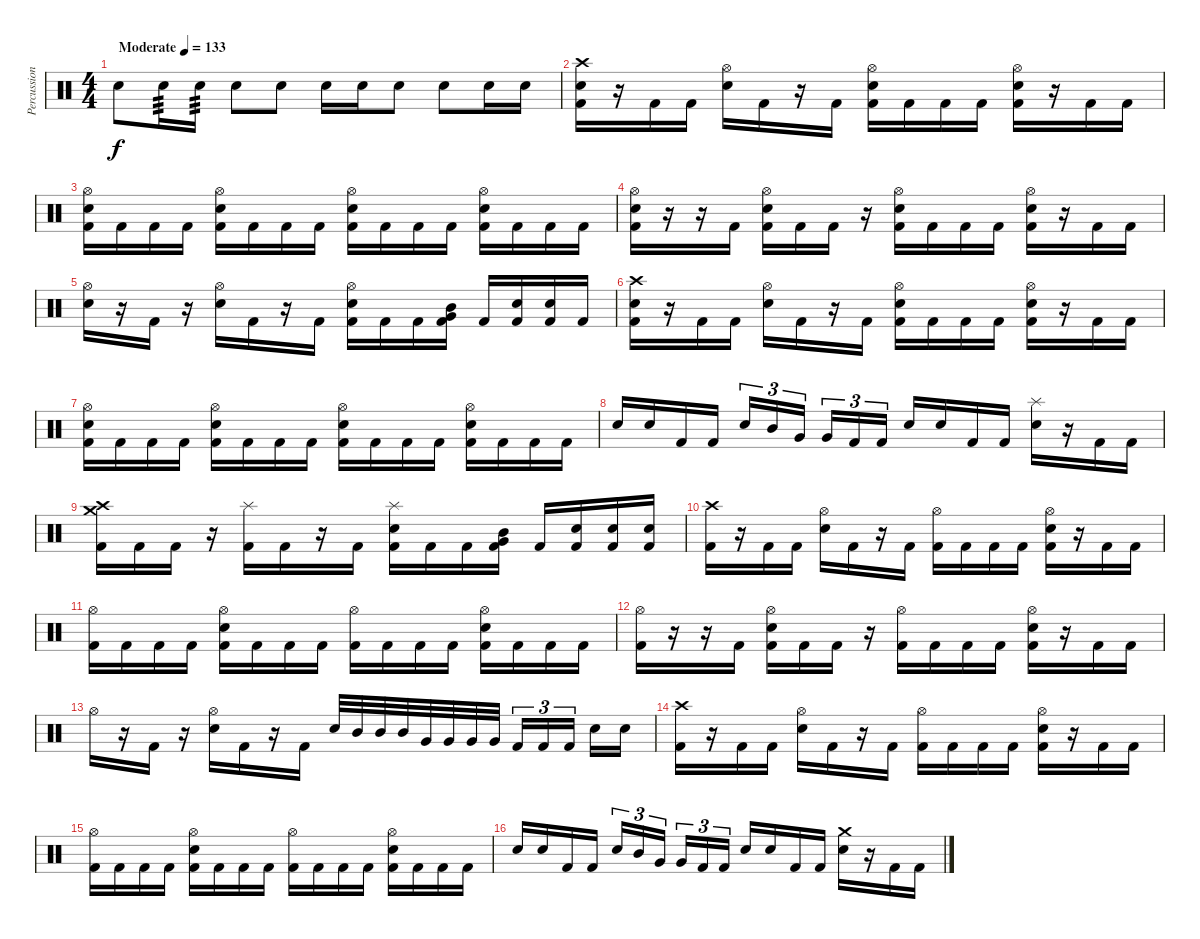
\track ("Percussion" "Percussion") {instrument percussion}
\staff {score}
\articulation defaults
\ts (4 4)
\tempo (133 "Moderate")
\clef neutral
\ks c "Snare (hit) 2".8{dy f} "Snare (hit) 2".16{tp 3} "Snare (hit) 2".16{tp 3} "Snare (hit) 2".8 "Snare (hit) 2".8 "Snare (hit) 2".16 "Snare (hit) 2".16 "Snare (hit) 2".8 "Snare (hit) 2".8 "Snare (hit) 2".16 "Snare (hit) 2".16
|
("Kick (hit) 2" "Electric Snare (hit)" "Crash high (hit)").16 r.16 "Kick (hit) 2".16 "Kick (hit) 2".16 ("Electric Snare (hit)" "Hi-Hat (open)").16 "Kick (hit) 2".16 r.16 "Kick (hit) 2".16 ("Kick (hit) 2" "Electric Snare (hit)" "Hi-Hat (open)").16 "Kick (hit) 2".16 "Kick (hit) 2".16 "Kick (hit) 2".16 ("Kick (hit) 2" "Electric Snare (hit)" "Hi-Hat (open)").16 r.16 "Kick (hit) 2".16 "Kick (hit) 2".16 |
("Kick (hit) 2" "Electric Snare (hit)" "Hi-Hat (open)").16 "Kick (hit) 2".16 "Kick (hit) 2".16 "Kick (hit) 2".16 ("Kick (hit) 2" "Electric Snare (hit)" "Hi-Hat (open)").16 "Kick (hit) 2".16 "Kick (hit) 2".16 "Kick (hit) 2".16 ("Kick (hit) 2" "Electric Snare (hit)" "Hi-Hat (open)").16 "Kick (hit) 2".16 "Kick (hit) 2".16 "Kick (hit) 2".16 ("Kick (hit) 2" "Electric Snare (hit)" "Hi-Hat (open)").16 "Kick (hit) 2".16 "Kick (hit) 2".16 "Kick (hit) 2".16 |
("Kick (hit) 2" "Electric Snare (hit)" "Hi-Hat (open)").16 r.16 r.16 "Kick (hit) 2".16 ("Kick (hit) 2" "Electric Snare (hit)" "Hi-Hat (open)").16 "Kick (hit) 2".16 "Kick (hit) 2".16 r.16 ("Kick (hit) 2" "Electric Snare (hit)" "Hi-Hat (open)").16 "Kick (hit) 2".16 "Kick (hit) 2".16 "Kick (hit) 2".16 ("Kick (hit) 2" "Electric Snare (hit)" "Hi-Hat (open)").16 r.16 "Kick (hit) 2".16 "Kick (hit) 2".16 |
("Electric Snare (hit)" "Hi-Hat (open)").16 r.16 "Kick (hit) 2".16 r.16 ("Electric Snare (hit)" "Hi-Hat (open)").16 "Kick (hit) 2".16 r.16 "Kick (hit) 2".16 ("Kick (hit) 2" "Electric Snare (hit)" "Hi-Hat (open)").16 "Kick (hit) 2".16 "Kick (hit) 2".16 ("Kick (hit) 2" "Very Low Tom (hit)" "Mid Tom (hit)").16 "Kick (hit) 2".16 ("Kick (hit) 2" "Electric Snare (hit)").16 ("Kick (hit) 2" "Electric Snare (hit)").16 "Kick (hit) 2".16 |
("Kick (hit) 2" "Electric Snare (hit)" "Crash high (hit)").16 r.16 "Kick (hit) 2".16 "Kick (hit) 2".16 ("Electric Snare (hit)" "Hi-Hat (open)").16 "Kick (hit) 2".16 r.16 "Kick (hit) 2".16 ("Kick (hit) 2" "Electric Snare (hit)" "Hi-Hat (open)").16 "Kick (hit) 2".16 "Kick (hit) 2".16 "Kick (hit) 2".16 ("Kick (hit) 2" "Electric Snare (hit)" "Hi-Hat (open)").16 r.16 "Kick (hit) 2".16 "Kick (hit) 2".16 |
("Kick (hit) 2" "Electric Snare (hit)" "Hi-Hat (open)").16 "Kick (hit) 2".16 "Kick (hit) 2".16 "Kick (hit) 2".16 ("Kick (hit) 2" "Electric Snare (hit)" "Hi-Hat (open)").16 "Kick (hit) 2".16 "Kick (hit) 2".16 "Kick (hit) 2".16 ("Kick (hit) 2" "Electric Snare (hit)" "Hi-Hat (open)").16 "Kick (hit) 2".16 "Kick (hit) 2".16 "Kick (hit) 2".16 ("Kick (hit) 2" "Electric Snare (hit)" "Hi-Hat (open)").16 "Kick (hit) 2".16 "Kick (hit) 2".16 "Kick (hit) 2".16 |
"Electric Snare (hit)".16 "Electric Snare (hit)".16 "Kick (hit) 2".16 "Kick (hit) 2".16 "Electric Snare (hit)".16{tu (3 2)} "Mid Tom (hit)".16{tu (3 2)} "Very Low Tom (hit)".16{tu (3 2) beam splitsecondary} "Very Low Tom (hit)".16{tu (3 2)} "Kick (hit) 2".16{tu (3 2)} "Kick (hit) 2".16{tu (3 2)} "Electric Snare (hit)".16 "Electric Snare (hit)".16 "Kick (hit) 2".16 "Kick (hit) 2".16 ("Electric Snare (hit)" "Splash (hit)").16 r.16 "Kick (hit) 2".16 "Kick (hit) 2".16 |
("Kick (hit) 2" "Crash medium (hit)" "Crash high (hit)").16 "Kick (hit) 2".16 "Kick (hit) 2".16 r.16 ("Kick (hit) 2" "Splash (hit)").16 "Kick (hit) 2".16 r.16 "Kick (hit) 2".16 ("Kick (hit) 2" "Electric Snare (hit)" "Splash (hit)").16 "Kick (hit) 2".16 "Kick (hit) 2".16 ("Kick (hit) 2" "Very Low Tom (hit)" "Mid Tom (hit)").16 "Kick (hit) 2".16 ("Kick (hit) 2" "Electric Snare (hit)").16 ("Kick (hit) 2" "Electric Snare (hit)").16 ("Kick (hit) 2" "Electric Snare (hit)").16 |
("Kick (hit) 2" "Crash high (hit)").16 r.16 "Kick (hit) 2".16 "Kick (hit) 2".16 ("Electric Snare (hit)" "Hi-Hat (open)").16 "Kick (hit) 2".16 r.16 "Kick (hit) 2".16 ("Kick (hit) 2" "Hi-Hat (open)").16 "Kick (hit) 2".16 "Kick (hit) 2".16 "Kick (hit) 2".16 ("Kick (hit) 2" "Electric Snare (hit)" "Hi-Hat (open)").16 r.16 "Kick (hit) 2".16 "Kick (hit) 2".16 |
("Kick (hit) 2" "Hi-Hat (open)").16 "Kick (hit) 2".16 "Kick (hit) 2".16 "Kick (hit) 2".16 ("Kick (hit) 2" "Electric Snare (hit)" "Hi-Hat (open)").16 "Kick (hit) 2".16 "Kick (hit) 2".16 "Kick (hit) 2".16 ("Kick (hit) 2" "Hi-Hat (open)").16 "Kick (hit) 2".16 "Kick (hit) 2".16 "Kick (hit) 2".16 ("Kick (hit) 2" "Electric Snare (hit)" "Hi-Hat (open)").16 "Kick (hit) 2".16 "Kick (hit) 2".16 "Kick (hit) 2".16 |
("Kick (hit) 2" "Hi-Hat (open)").16 r.16 r.16 "Kick (hit) 2".16 ("Kick (hit) 2" "Electric Snare (hit)" "Hi-Hat (open)").16 "Kick (hit) 2".16 "Kick (hit) 2".16 r.16 ("Kick (hit) 2" "Hi-Hat (open)").16 "Kick (hit) 2".16 "Kick (hit) 2".16 "Kick (hit) 2".16 ("Kick (hit) 2" "Electric Snare (hit)" "Hi-Hat (open)").16 r.16 "Kick (hit) 2".16 "Kick (hit) 2".16 |
"Hi-Hat (open)".16 r.16 "Kick (hit) 2".16 r.16 ("Electric Snare (hit)" "Hi-Hat (open)").16 "Kick (hit) 2".16 r.16 "Kick (hit) 2".16 "Electric Snare (hit)".32 "Mid Tom (hit)".32 "Mid Tom (hit)".32 "Mid Tom (hit)".32 "Very Low Tom (hit)".32 "Very Low Tom (hit)".32 "Very Low Tom (hit)".32 "Very Low Tom (hit)".32 "Kick (hit) 2".16{tu (3 2)} "Kick (hit) 2".16{tu (3 2)} "Kick (hit) 2".16{tu (3 2) beam splitsecondary} "Electric Snare (hit)".16 "Electric Snare (hit)".16 |
("Kick (hit) 2" "Crash high (hit)").16 r.16 "Kick (hit) 2".16 "Kick (hit) 2".16 ("Electric Snare (hit)" "Hi-Hat (open)").16 "Kick (hit) 2".16 r.16 "Kick (hit) 2".16 ("Kick (hit) 2" "Hi-Hat (open)").16 "Kick (hit) 2".16 "Kick (hit) 2".16 "Kick (hit) 2".16 ("Kick (hit) 2" "Electric Snare (hit)" "Hi-Hat (open)").16 r.16 "Kick (hit) 2".16 "Kick (hit) 2".16 |
("Kick (hit) 2" "Hi-Hat (open)").16 "Kick (hit) 2".16 "Kick (hit) 2".16 "Kick (hit) 2".16 ("Kick (hit) 2" "Electric Snare (hit)" "Hi-Hat (open)").16 "Kick (hit) 2".16 "Kick (hit) 2".16 "Kick (hit) 2".16 ("Kick (hit) 2" "Hi-Hat (open)").16 "Kick (hit) 2".16 "Kick (hit) 2".16 "Kick (hit) 2".16 ("Kick (hit) 2" "Electric Snare (hit)" "Hi-Hat (open)").16 "Kick (hit) 2".16 "Kick (hit) 2".16 "Kick (hit) 2".16 |
"Electric Snare (hit)".16 "Electric Snare (hit)".16 "Kick (hit) 2".16 "Kick (hit) 2".16 "Electric Snare (hit)".16{tu (3 2)} "Mid Tom (hit)".16{tu (3 2)} "Very Low Tom (hit)".16{tu (3 2) beam splitsecondary} "Very Low Tom (hit)".16{tu (3 2)} "Kick (hit) 2".16{tu (3 2)} "Kick (hit) 2".16{tu (3 2)} "Electric Snare (hit)".16 "Electric Snare (hit)".16 "Kick (hit) 2".16 "Kick (hit) 2".16 ("Electric Snare (hit)" "Crash medium (hit)").16 r.16 "Kick (hit) 2".16 "Kick (hit) 2".16
